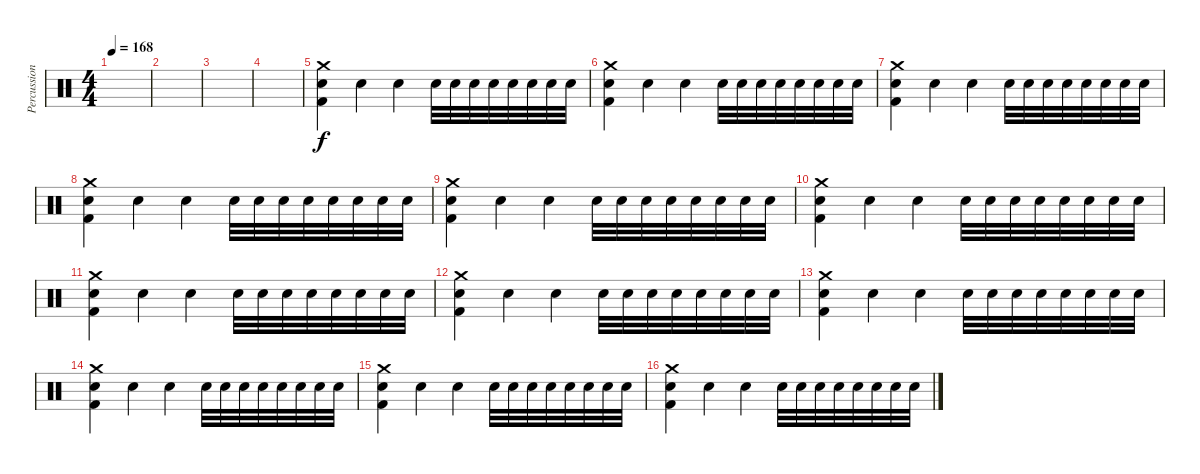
\track ("Percussion" "Percussion") {instrument percussion}
\staff {score}
\articulation defaults
\ts (4 4)
\tempo 168
\clef neutral
\ks c
|
|
|
|
("Crash medium (hit)" "Electric Snare (hit)" "Kick (hit) 2").4 "Electric Snare (hit)".4 "Electric Snare (hit)".4 "Electric Snare (hit)".32 "Electric Snare (hit)".32 "Electric Snare (hit)".32 "Electric Snare (hit)".32 "Electric Snare (hit)".32 "Electric Snare (hit)".32 "Electric Snare (hit)".32 "Electric Snare (hit)".32 |
("Crash medium (hit)" "Electric Snare (hit)" "Kick (hit) 2").4 "Electric Snare (hit)".4 "Electric Snare (hit)".4 "Electric Snare (hit)".32 "Electric Snare (hit)".32 "Electric Snare (hit)".32 "Electric Snare (hit)".32 "Electric Snare (hit)".32 "Electric Snare (hit)".32 "Electric Snare (hit)".32 "Electric Snare (hit)".32 |
("Crash medium (hit)" "Electric Snare (hit)" "Kick (hit) 2").4 "Electric Snare (hit)".4 "Electric Snare (hit)".4 "Electric Snare (hit)".32 "Electric Snare (hit)".32 "Electric Snare (hit)".32 "Electric Snare (hit)".32 "Electric Snare (hit)".32 "Electric Snare (hit)".32 "Electric Snare (hit)".32 "Electric Snare (hit)".32 |
("Crash medium (hit)" "Electric Snare (hit)" "Kick (hit) 2").4 "Electric Snare (hit)".4 "Electric Snare (hit)".4 "Electric Snare (hit)".32 "Electric Snare (hit)".32 "Electric Snare (hit)".32 "Electric Snare (hit)".32 "Electric Snare (hit)".32 "Electric Snare (hit)".32 "Electric Snare (hit)".32 "Electric Snare (hit)".32 |
("Crash medium (hit)" "Electric Snare (hit)" "Kick (hit) 2").4 "Electric Snare (hit)".4 "Electric Snare (hit)".4 "Electric Snare (hit)".32 "Electric Snare (hit)".32 "Electric Snare (hit)".32 "Electric Snare (hit)".32 "Electric Snare (hit)".32 "Electric Snare (hit)".32 "Electric Snare (hit)".32 "Electric Snare (hit)".32 |
("Crash medium (hit)" "Electric Snare (hit)" "Kick (hit) 2").4 "Electric Snare (hit)".4 "Electric Snare (hit)".4 "Electric Snare (hit)".32 "Electric Snare (hit)".32 "Electric Snare (hit)".32 "Electric Snare (hit)".32 "Electric Snare (hit)".32 "Electric Snare (hit)".32 "Electric Snare (hit)".32 "Electric Snare (hit)".32 |
("Crash medium (hit)" "Electric Snare (hit)" "Kick (hit) 2").4 "Electric Snare (hit)".4 "Electric Snare (hit)".4 "Electric Snare (hit)".32 "Electric Snare (hit)".32 "Electric Snare (hit)".32 "Electric Snare (hit)".32 "Electric Snare (hit)".32 "Electric Snare (hit)".32 "Electric Snare (hit)".32 "Electric Snare (hit)".32 |
("Crash medium (hit)" "Electric Snare (hit)" "Kick (hit) 2").4 "Electric Snare (hit)".4 "Electric Snare (hit)".4 "Electric Snare (hit)".32 "Electric Snare (hit)".32 "Electric Snare (hit)".32 "Electric Snare (hit)".32 "Electric Snare (hit)".32 "Electric Snare (hit)".32 "Electric Snare (hit)".32 "Electric Snare (hit)".32 |
("Crash medium (hit)" "Electric Snare (hit)" "Kick (hit) 2").4 "Electric Snare (hit)".4 "Electric Snare (hit)".4 "Electric Snare (hit)".32 "Electric Snare (hit)".32 "Electric Snare (hit)".32 "Electric Snare (hit)".32 "Electric Snare (hit)".32 "Electric Snare (hit)".32 "Electric Snare (hit)".32 "Electric Snare (hit)".32 |
("Crash medium (hit)" "Electric Snare (hit)" "Kick (hit) 2").4 "Electric Snare (hit)".4 "Electric Snare (hit)".4 "Electric Snare (hit)".32 "Electric Snare (hit)".32 "Electric Snare (hit)".32 "Electric Snare (hit)".32 "Electric Snare (hit)".32 "Electric Snare (hit)".32 "Electric Snare (hit)".32 "Electric Snare (hit)".32 |
("Crash medium (hit)" "Electric Snare (hit)" "Kick (hit) 2").4 "Electric Snare (hit)".4 "Electric Snare (hit)".4 "Electric Snare (hit)".32 "Electric Snare (hit)".32 "Electric Snare (hit)".32 "Electric Snare (hit)".32 "Electric Snare (hit)".32 "Electric Snare (hit)".32 "Electric Snare (hit)".32 "Electric Snare (hit)".32 |
("Crash medium (hit)" "Electric Snare (hit)" "Kick (hit) 2").4 "Electric Snare (hit)".4 "Electric Snare (hit)".4 "Electric Snare (hit)".32 "Electric Snare (hit)".32 "Electric Snare (hit)".32 "Electric Snare (hit)".32 "Electric Snare (hit)".32 "Electric Snare (hit)".32 "Electric Snare (hit)".32 "Electric Snare (hit)".32
